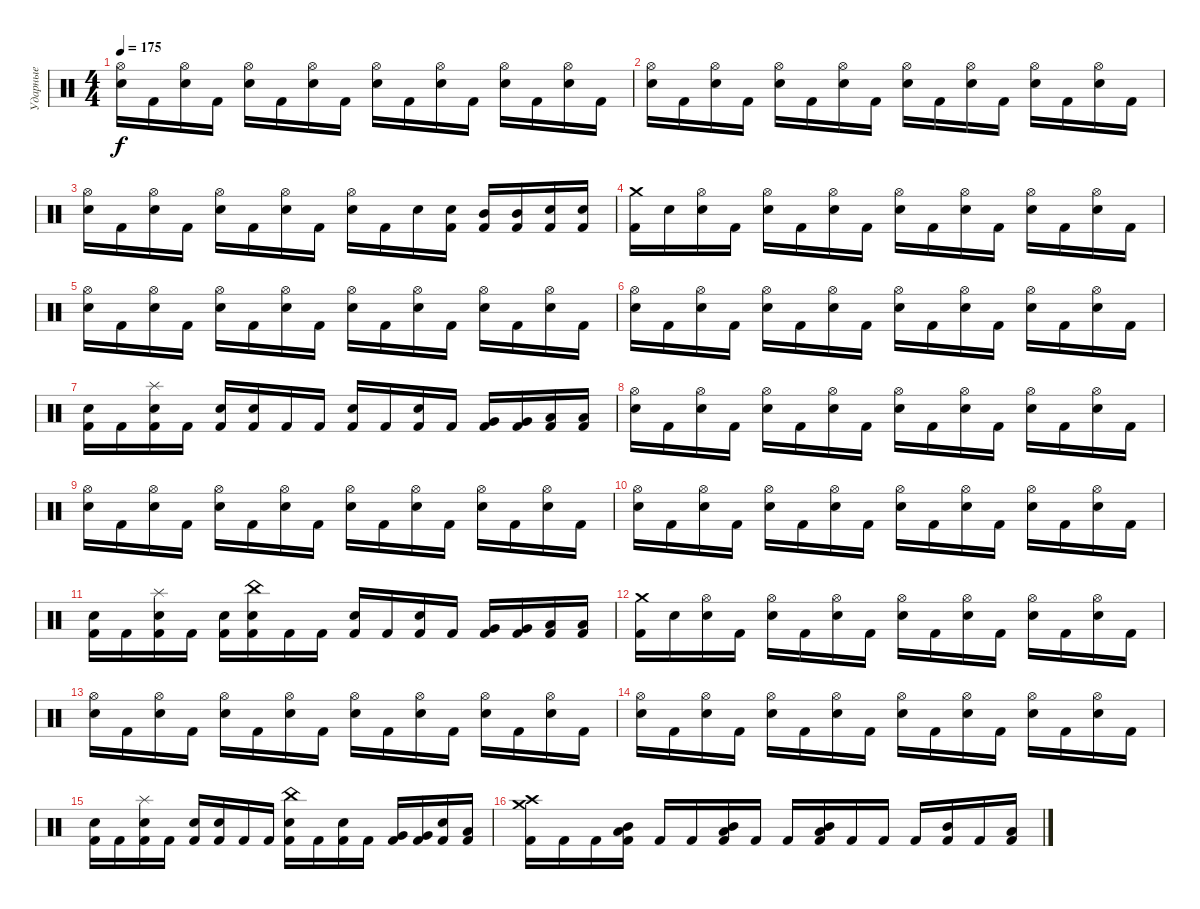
\track ("Ударные" "Ударные") {instrument percussion}
\staff {score}
\articulation defaults
\ts (4 4)
\tempo 175
\clef neutral
\ks c
("Electric Snare (hit)" "Hi-Hat (open)").16{dy f} "Kick (hit) 2".16 ("Electric Snare (hit)" "Hi-Hat (open)").16 "Kick (hit) 2".16 ("Electric Snare (hit)" "Hi-Hat (open)").16 "Kick (hit) 2".16 ("Electric Snare (hit)" "Hi-Hat (open)").16 "Kick (hit) 2".16 ("Electric Snare (hit)" "Hi-Hat (open)").16 "Kick (hit) 2".16 ("Electric Snare (hit)" "Hi-Hat (open)").16 "Kick (hit) 2".16 ("Electric Snare (hit)" "Hi-Hat (open)").16 "Kick (hit) 2".16 ("Electric Snare (hit)" "Hi-Hat (open)").16 "Kick (hit) 2".16 |
("Electric Snare (hit)" "Hi-Hat (open)").16 "Kick (hit) 2".16 ("Electric Snare (hit)" "Hi-Hat (open)").16 "Kick (hit) 2".16 ("Electric Snare (hit)" "Hi-Hat (open)").16 "Kick (hit) 2".16 ("Electric Snare (hit)" "Hi-Hat (open)").16 "Kick (hit) 2".16 ("Electric Snare (hit)" "Hi-Hat (open)").16 "Kick (hit) 2".16 ("Electric Snare (hit)" "Hi-Hat (open)").16 "Kick (hit) 2".16 ("Electric Snare (hit)" "Hi-Hat (open)").16 "Kick (hit) 2".16 ("Electric Snare (hit)" "Hi-Hat (open)").16 "Kick (hit) 2".16 |
("Electric Snare (hit)" "Hi-Hat (open)").16 "Kick (hit) 2".16 ("Electric Snare (hit)" "Hi-Hat (open)").16 "Kick (hit) 2".16 ("Electric Snare (hit)" "Hi-Hat (open)").16 "Kick (hit) 2".16 ("Electric Snare (hit)" "Hi-Hat (open)").16 "Kick (hit) 2".16 ("Electric Snare (hit)" "Hi-Hat (open)").16 "Kick (hit) 2".16 "Electric Snare (hit)".16 ("Electric Snare (hit)" "Kick (hit) 2").16 ("Mid Tom (hit)" "Kick (hit) 2").16 ("Mid Tom (hit)" "Kick (hit) 2").16 ("Electric Snare (hit)" "Kick (hit) 2").16 ("Electric Snare (hit)" "Kick (hit) 2").16 |
("Crash medium (hit)" "Kick (hit) 2").16 "Snare (hit)".16 ("Electric Snare (hit)" "Hi-Hat (open)").16 "Kick (hit) 2".16 ("Electric Snare (hit)" "Hi-Hat (open)").16 "Kick (hit) 2".16 ("Electric Snare (hit)" "Hi-Hat (open)").16 "Kick (hit) 2".16 ("Electric Snare (hit)" "Hi-Hat (open)").16 "Kick (hit) 2".16 ("Electric Snare (hit)" "Hi-Hat (open)").16 "Kick (hit) 2".16 ("Electric Snare (hit)" "Hi-Hat (open)").16 "Kick (hit) 2".16 ("Electric Snare (hit)" "Hi-Hat (open)").16 "Kick (hit) 2".16 |
("Electric Snare (hit)" "Hi-Hat (open)").16 "Kick (hit) 2".16 ("Electric Snare (hit)" "Hi-Hat (open)").16 "Kick (hit) 2".16 ("Electric Snare (hit)" "Hi-Hat (open)").16 "Kick (hit) 2".16 ("Electric Snare (hit)" "Hi-Hat (open)").16 "Kick (hit) 2".16 ("Electric Snare (hit)" "Hi-Hat (open)").16 "Kick (hit) 2".16 ("Electric Snare (hit)" "Hi-Hat (open)").16 "Kick (hit) 2".16 ("Electric Snare (hit)" "Hi-Hat (open)").16 "Kick (hit) 2".16 ("Electric Snare (hit)" "Hi-Hat (open)").16 "Kick (hit) 2".16 |
("Electric Snare (hit)" "Hi-Hat (open)").16 "Kick (hit) 2".16 ("Electric Snare (hit)" "Hi-Hat (open)").16 "Kick (hit) 2".16 ("Electric Snare (hit)" "Hi-Hat (open)").16 "Kick (hit) 2".16 ("Electric Snare (hit)" "Hi-Hat (open)").16 "Kick (hit) 2".16 ("Electric Snare (hit)" "Hi-Hat (open)").16 "Kick (hit) 2".16 ("Electric Snare (hit)" "Hi-Hat (open)").16 "Kick (hit) 2".16 ("Electric Snare (hit)" "Hi-Hat (open)").16 "Kick (hit) 2".16 ("Electric Snare (hit)" "Hi-Hat (open)").16 "Kick (hit) 2".16 |
("Electric Snare (hit)" "Kick (hit) 2").16 "Kick (hit) 2".16 ("Electric Snare (hit)" "Splash (hit)" "Kick (hit) 2").16 "Kick (hit) 2".16 ("Electric Snare (hit)" "Kick (hit) 2").16 ("Electric Snare (hit)" "Kick (hit) 2").16 "Kick (hit) 2".16 "Kick (hit) 2".16 ("Electric Snare (hit)" "Kick (hit) 2").16 "Kick (hit) 2".16 ("Electric Snare (hit)" "Kick (hit) 2").16 "Kick (hit) 2".16 ("Very Low Tom (hit)" "Kick (hit) 2").16 ("Very Low Tom (hit)" "Kick (hit) 2").16 ("Low Floor Tom (hit)" "Kick (hit) 2").16 ("Low Floor Tom (hit)" "Kick (hit) 2").16 |
("Electric Snare (hit)" "Hi-Hat (open)").16 "Kick (hit) 2".16 ("Electric Snare (hit)" "Hi-Hat (open)").16 "Kick (hit) 2".16 ("Electric Snare (hit)" "Hi-Hat (open)").16 "Kick (hit) 2".16 ("Electric Snare (hit)" "Hi-Hat (open)").16 "Kick (hit) 2".16 ("Electric Snare (hit)" "Hi-Hat (open)").16 "Kick (hit) 2".16 ("Electric Snare (hit)" "Hi-Hat (open)").16 "Kick (hit) 2".16 ("Electric Snare (hit)" "Hi-Hat (open)").16 "Kick (hit) 2".16 ("Electric Snare (hit)" "Hi-Hat (open)").16 "Kick (hit) 2".16 |
("Electric Snare (hit)" "Hi-Hat (open)").16 "Kick (hit) 2".16 ("Electric Snare (hit)" "Hi-Hat (open)").16 "Kick (hit) 2".16 ("Electric Snare (hit)" "Hi-Hat (open)").16 "Kick (hit) 2".16 ("Electric Snare (hit)" "Hi-Hat (open)").16 "Kick (hit) 2".16 ("Electric Snare (hit)" "Hi-Hat (open)").16 "Kick (hit) 2".16 ("Electric Snare (hit)" "Hi-Hat (open)").16 "Kick (hit) 2".16 ("Electric Snare (hit)" "Hi-Hat (open)").16 "Kick (hit) 2".16 ("Electric Snare (hit)" "Hi-Hat (open)").16 "Kick (hit) 2".16 |
("Electric Snare (hit)" "Hi-Hat (open)").16 "Kick (hit) 2".16 ("Electric Snare (hit)" "Hi-Hat (open)").16 "Kick (hit) 2".16 ("Electric Snare (hit)" "Hi-Hat (open)").16 "Kick (hit) 2".16 ("Electric Snare (hit)" "Hi-Hat (open)").16 "Kick (hit) 2".16 ("Electric Snare (hit)" "Hi-Hat (open)").16 "Kick (hit) 2".16 ("Electric Snare (hit)" "Hi-Hat (open)").16 "Kick (hit) 2".16 ("Electric Snare (hit)" "Hi-Hat (open)").16 "Kick (hit) 2".16 ("Electric Snare (hit)" "Hi-Hat (open)").16 "Kick (hit) 2".16 |
("Electric Snare (hit)" "Kick (hit) 2").16 "Kick (hit) 2".16 ("Electric Snare (hit)" "Splash (hit)" "Kick (hit) 2").16 "Kick (hit) 2".16 ("Electric Snare (hit)" "Kick (hit) 2").16 ("Electric Snare (hit)" "China (hit)" "Kick (hit) 2").16 "Kick (hit) 2".16 "Kick (hit) 2".16 ("Electric Snare (hit)" "Kick (hit) 2").16 "Kick (hit) 2".16 ("Electric Snare (hit)" "Kick (hit) 2").16 "Kick (hit) 2".16 ("Very Low Tom (hit)" "Kick (hit) 2").16 ("Very Low Tom (hit)" "Kick (hit) 2").16 ("Low Floor Tom (hit)" "Kick (hit) 2").16 ("Low Floor Tom (hit)" "Kick (hit) 2").16 |
("Crash medium (hit)" "Kick (hit) 2").16 "Snare (hit)".16 ("Electric Snare (hit)" "Hi-Hat (open)").16 "Kick (hit) 2".16 ("Electric Snare (hit)" "Hi-Hat (open)").16 "Kick (hit) 2".16 ("Electric Snare (hit)" "Hi-Hat (open)").16 "Kick (hit) 2".16 ("Electric Snare (hit)" "Hi-Hat (open)").16 "Kick (hit) 2".16 ("Electric Snare (hit)" "Hi-Hat (open)").16 "Kick (hit) 2".16 ("Electric Snare (hit)" "Hi-Hat (open)").16 "Kick (hit) 2".16 ("Electric Snare (hit)" "Hi-Hat (open)").16 "Kick (hit) 2".16 |
("Electric Snare (hit)" "Hi-Hat (open)").16 "Kick (hit) 2".16 ("Electric Snare (hit)" "Hi-Hat (open)").16 "Kick (hit) 2".16 ("Electric Snare (hit)" "Hi-Hat (open)").16 "Kick (hit) 2".16 ("Electric Snare (hit)" "Hi-Hat (open)").16 "Kick (hit) 2".16 ("Electric Snare (hit)" "Hi-Hat (open)").16 "Kick (hit) 2".16 ("Electric Snare (hit)" "Hi-Hat (open)").16 "Kick (hit) 2".16 ("Electric Snare (hit)" "Hi-Hat (open)").16 "Kick (hit) 2".16 ("Electric Snare (hit)" "Hi-Hat (open)").16 "Kick (hit) 2".16 |
("Electric Snare (hit)" "Hi-Hat (open)").16 "Kick (hit) 2".16 ("Electric Snare (hit)" "Hi-Hat (open)").16 "Kick (hit) 2".16 ("Electric Snare (hit)" "Hi-Hat (open)").16 "Kick (hit) 2".16 ("Electric Snare (hit)" "Hi-Hat (open)").16 "Kick (hit) 2".16 ("Electric Snare (hit)" "Hi-Hat (open)").16 "Kick (hit) 2".16 ("Electric Snare (hit)" "Hi-Hat (open)").16 "Kick (hit) 2".16 ("Electric Snare (hit)" "Hi-Hat (open)").16 "Kick (hit) 2".16 ("Electric Snare (hit)" "Hi-Hat (open)").16 "Kick (hit) 2".16 |
("Electric Snare (hit)" "Kick (hit) 2").16 "Kick (hit) 2".16 ("Electric Snare (hit)" "Splash (hit)" "Kick (hit) 2").16 "Kick (hit) 2".16 ("Electric Snare (hit)" "Kick (hit) 2").16 ("Electric Snare (hit)" "Kick (hit) 2").16 "Kick (hit) 2".16 "Kick (hit) 2".16 ("Electric Snare (hit)" "China (hit)" "Kick (hit) 2").16 "Kick (hit) 2".16 ("Electric Snare (hit)" "Kick (hit) 2").16 "Kick (hit) 2".16 ("Very Low Tom (hit)" "Kick (hit) 2").16 ("Very Low Tom (hit)" "Kick (hit) 2").16 ("Electric Snare (hit)" "Kick (hit) 2").16 ("Low Floor Tom (hit)" "Kick (hit) 2").16 |
("Crash medium (hit)" "Crash high (hit)" "Kick (hit) 2").16 "Kick (hit) 2".16 "Kick (hit) 2".16 ("Mid Tom (hit)" "Low Tom (hit)" "Kick (hit) 2").16 "Kick (hit) 2".16 "Kick (hit) 2".16 ("Mid Tom (hit)" "Low Tom (hit)" "Kick (hit) 2").16 "Kick (hit) 2".16 "Kick (hit) 2".16 ("Mid Tom (hit)" "Low Tom (hit)" "Kick (hit) 2").16 "Kick (hit) 2".16 "Kick (hit) 2".16 "Kick (hit) 2".16 ("Mid Tom (hit)" "Kick (hit) 2").16 "Kick (hit) 2".16 ("Low Tom (hit)" "Kick (hit) 2").16
